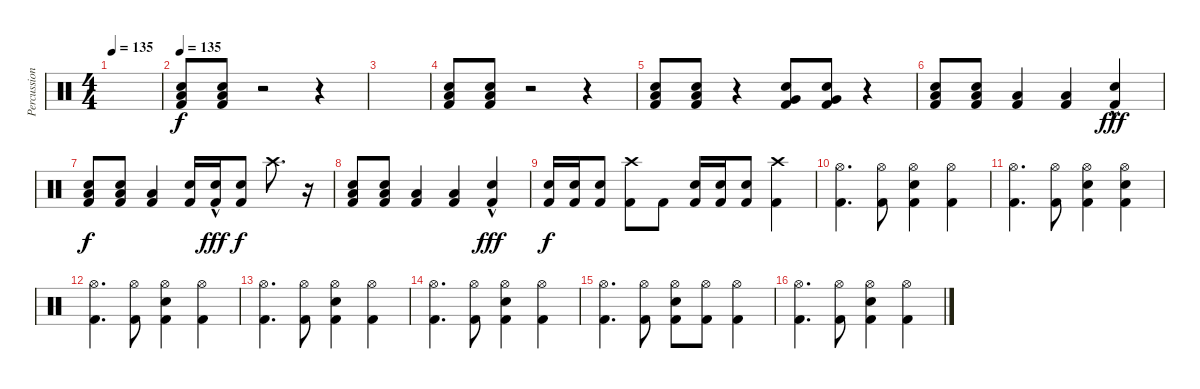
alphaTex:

\track ("Percussion" "Percussion") {instrument percussion}
\staff {score}
\articulation defaults
\ts (4 4)
\tempo 135
\clef neutral
\ks c
|
\tempo 135
("Low Tom (hit)" "Electric Snare (hit)" "Kick (hit) 2").8 ("Low Tom (hit)" "Electric Snare (hit)" "Kick (hit) 2").8 r.2 r.4 |
|
("Low Tom (hit)" "Electric Snare (hit)" "Kick (hit) 2").8 ("Low Tom (hit)" "Electric Snare (hit)" "Kick (hit) 2").8 r.2 r.4 |
("Low Tom (hit)" "Electric Snare (hit)" "Kick (hit) 2").8 ("Low Tom (hit)" "Electric Snare (hit)" "Kick (hit) 2").8 r.4 ("Very Low Tom (hit)" "Electric Snare (hit)" "Kick (hit) 2").8 ("Very Low Tom (hit)" "Electric Snare (hit)" "Kick (hit) 2").8 r.4 |
("Low Tom (hit)" "Electric Snare (hit)" "Kick (hit) 2").8 ("Low Tom (hit)" "Electric Snare (hit)" "Kick (hit) 2").8 ("Low Tom (hit)" "Kick (hit) 2").4 ("Low Tom (hit)" "Kick (hit) 2").4 ("Snare (hit) 2"{hac} "Kick (hit) 2").4{dy fff} |
("Low Tom (hit)" "Electric Snare (hit)" "Kick (hit) 2").8{dy f} ("Low Tom (hit)" "Electric Snare (hit)" "Kick (hit) 2").8 ("Low Tom (hit)" "Kick (hit) 2").4 ("Snare (hit) 2" "Kick (hit) 2").16 ("Snare (hit) 2"{hac} "Kick (hit) 2").16{dy fff} ("Snare (hit) 2" "Kick (hit) 2").8{dy f} "Crash high (hit)".8{d} r.16 |
("Low Tom (hit)" "Electric Snare (hit)" "Kick (hit) 2").8 ("Low Tom (hit)" "Electric Snare (hit)" "Kick (hit) 2").8 ("Low Tom (hit)" "Kick (hit) 2").4 ("Low Tom (hit)" "Kick (hit) 2").4 ("Snare (hit) 2"{hac} "Kick (hit) 2").4{dy fff} |
("Snare (hit) 2" "Kick (hit) 2").16{dy f} ("Snare (hit) 2" "Kick (hit) 2").16 ("Snare (hit) 2" "Kick (hit) 2").8 ("Crash high (hit)" "Kick (hit) 2").8 "Kick (hit) 2".8 ("Snare (hit) 2" "Kick (hit) 2").16 ("Snare (hit) 2" "Kick (hit) 2").16 ("Snare (hit) 2" "Kick (hit) 2").8 ("Crash high (hit)" "Kick (hit) 2").4 |
("Hi-Hat (open)" "Kick (hit) 2").4{d} ("Hi-Hat (open)" "Kick (hit) 2").8 ("Hi-Hat (open)" "Electric Snare (hit)" "Kick (hit) 2").4 ("Hi-Hat (open)" "Kick (hit) 2").4 |
("Hi-Hat (open)" "Kick (hit) 2").4{d} ("Hi-Hat (open)" "Kick (hit) 2").8 ("Hi-Hat (open)" "Electric Snare (hit)" "Kick (hit) 2").4 ("Hi-Hat (open)" "Electric Snare (hit)" "Kick (hit) 2").4 |
("Hi-Hat (open)" "Kick (hit) 2").4{d} ("Hi-Hat (open)" "Kick (hit) 2").8 ("Hi-Hat (open)" "Electric Snare (hit)" "Kick (hit) 2").4 ("Hi-Hat (open)" "Kick (hit) 2").4 |
("Hi-Hat (open)" "Kick (hit) 2").4{d} ("Hi-Hat (open)" "Kick (hit) 2").8 ("Hi-Hat (open)" "Electric Snare (hit)" "Kick (hit) 2").4 ("Hi-Hat (open)" "Kick (hit) 2").4 |
("Hi-Hat (open)" "Kick (hit) 2").4{d} ("Hi-Hat (open)" "Kick (hit) 2").8 ("Hi-Hat (open)" "Electric Snare (hit)" "Kick (hit) 2").4 ("Hi-Hat (open)" "Kick (hit) 2").4 |
("Hi-Hat (open)" "Kick (hit) 2").4{d} ("Hi-Hat (open)" "Kick (hit) 2").8 ("Hi-Hat (open)" "Electric Snare (hit)" "Kick (hit) 2").8 ("Hi-Hat (open)" "Kick (hit) 2").8 ("Hi-Hat (open)" "Kick (hit) 2").4 |
("Hi-Hat (open)" "Kick (hit) 2").4{d} ("Hi-Hat (open)" "Kick (hit) 2").8 ("Hi-Hat (open)" "Electric Snare (hit)" "Kick (hit) 2").4 ("Hi-Hat (open)" "Kick (hit) 2").4
